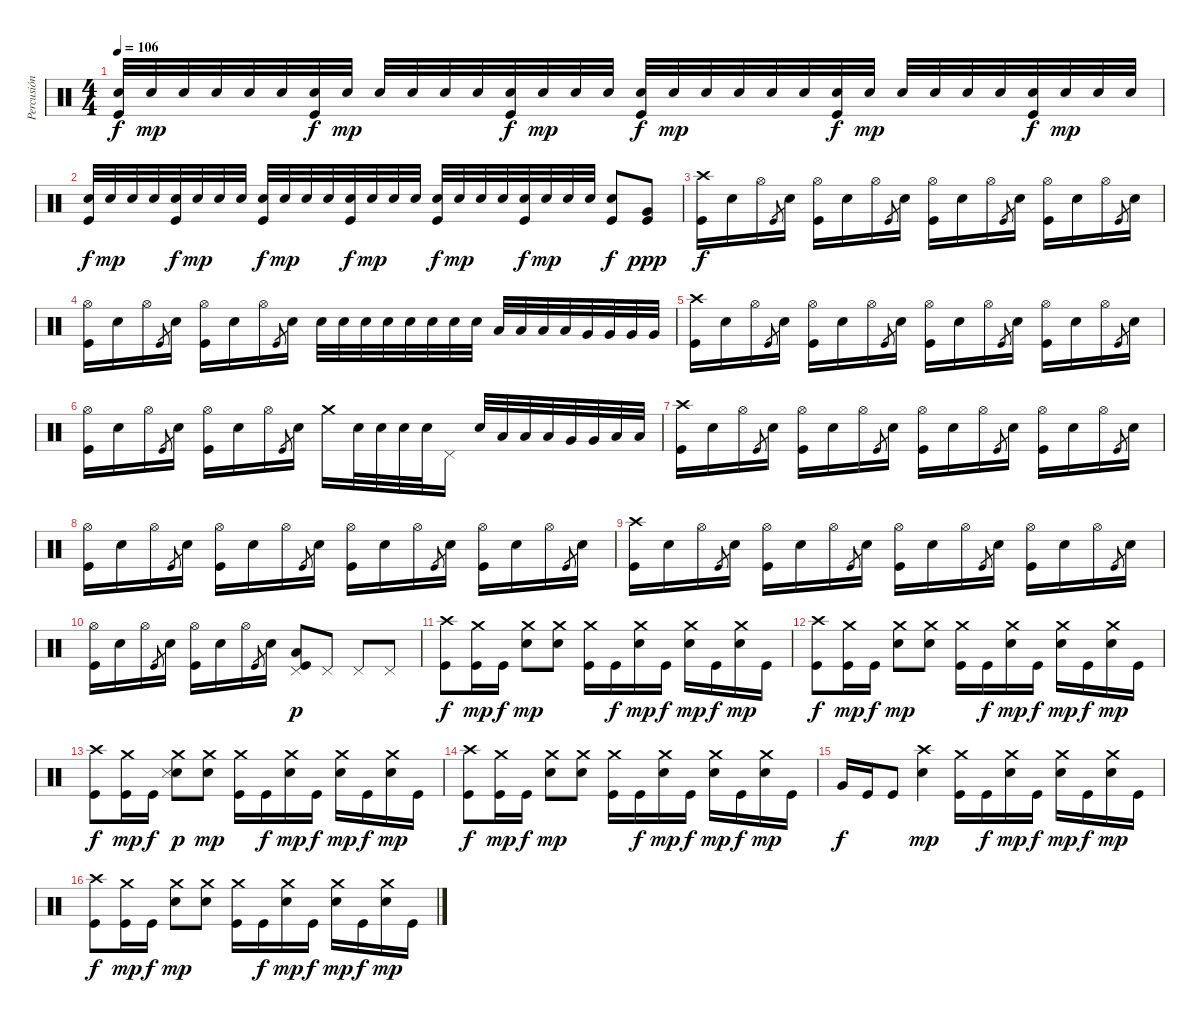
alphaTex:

\track ("Percusión" "Percusión") {instrument percussion}
\staff {score}
\articulation defaults
\ts (4 4)
\tempo 106
\clef neutral
\ks c
("Snare (hit) 2" "Kick (hit)").32{dy f} "Snare (hit) 2".32{dy mp} "Snare (hit) 2".32 "Snare (hit) 2".32 "Snare (hit) 2".32 "Snare (hit) 2".32 ("Snare (hit) 2" "Kick (hit)").32{dy f} "Snare (hit) 2".32{dy mp} "Snare (hit) 2".32 "Snare (hit) 2".32 "Snare (hit) 2".32 "Snare (hit) 2".32 ("Snare (hit) 2" "Kick (hit)").32{dy f} "Snare (hit) 2".32{dy mp} "Snare (hit) 2".32 "Snare (hit) 2".32 ("Snare (hit) 2" "Kick (hit)").32{dy f} "Snare (hit) 2".32{dy mp} "Snare (hit) 2".32 "Snare (hit) 2".32 "Snare (hit) 2".32 "Snare (hit) 2".32 ("Snare (hit) 2" "Kick (hit)").32{dy f} "Snare (hit) 2".32{dy mp} "Snare (hit) 2".32 "Snare (hit) 2".32 "Snare (hit) 2".32 "Snare (hit) 2".32 ("Snare (hit) 2" "Kick (hit)").32{dy f} "Snare (hit) 2".32{dy mp} "Snare (hit) 2".32 "Snare (hit) 2".32 |
("Snare (hit) 2" "Kick (hit)").32{dy f} "Snare (hit) 2".32{dy mp} "Snare (hit) 2".32 "Snare (hit) 2".32 ("Snare (hit) 2" "Kick (hit)").32{dy f} "Snare (hit) 2".32{dy mp} "Snare (hit) 2".32 "Snare (hit) 2".32 ("Snare (hit) 2" "Kick (hit)").32{dy f} "Snare (hit) 2".32{dy mp} "Snare (hit) 2".32 "Snare (hit) 2".32 ("Snare (hit) 2" "Kick (hit)").32{dy f} "Snare (hit) 2".32{dy mp} "Snare (hit) 2".32 "Snare (hit) 2".32 ("Snare (hit) 2" "Kick (hit)").32{dy f} "Snare (hit) 2".32{dy mp} "Snare (hit) 2".32 "Snare (hit) 2".32 ("Snare (hit) 2" "Kick (hit)").32{dy f} "Snare (hit) 2".32{dy mp} "Snare (hit) 2".32 "Snare (hit) 2".32 ("Snare (hit) 2" "Kick (hit)").8{dy f} ("Very Low Tom (hit)" "Kick (hit)").8{dy ppp} |
("Kick (hit)" "Crash high (hit)").16{dy f} "Snare (hit) 2".16 "Hi-Hat (open)".16 "Kick (hit)".8{gr} "Snare (hit) 2".16 ("Kick (hit)" "Hi-Hat (open)").16 "Snare (hit) 2".16 "Hi-Hat (open)".16 "Kick (hit)".8{gr} "Snare (hit) 2".16 ("Kick (hit)" "Hi-Hat (open)").16 "Snare (hit) 2".16 "Hi-Hat (open)".16 "Kick (hit)".8{gr} "Snare (hit) 2".16 ("Kick (hit)" "Hi-Hat (open)").16 "Snare (hit) 2".16 "Hi-Hat (open)".16 "Kick (hit)".8{gr} "Snare (hit) 2".16 |
("Kick (hit)" "Hi-Hat (open)").16 "Snare (hit) 2".16 "Hi-Hat (open)".16 "Kick (hit)".8{gr} "Snare (hit) 2".16 ("Kick (hit)" "Hi-Hat (open)").16 "Snare (hit) 2".16 "Hi-Hat (open)".16 "Kick (hit)".8{gr} "Snare (hit) 2".16 "Snare (hit) 2".32 "Snare (hit) 2".32 "Snare (hit) 2".32 "Snare (hit) 2".32 "Snare (hit) 2".32 "Snare (hit) 2".32 "Snare (hit) 2".32 "Snare (hit) 2".32 "Low Tom (hit)".32 "Low Tom (hit)".32 "Low Tom (hit)".32 "Low Tom (hit)".32 "Very Low Tom (hit)".32 "Very Low Tom (hit)".32 "Very Low Tom (hit)".32 "Very Low Tom (hit)".32 |
("Kick (hit)" "Crash high (hit)").16 "Snare (hit) 2".16 "Hi-Hat (open)".16 "Kick (hit)".8{gr} "Snare (hit) 2".16 ("Kick (hit)" "Hi-Hat (open)").16 "Snare (hit) 2".16 "Hi-Hat (open)".16 "Kick (hit)".8{gr} "Snare (hit) 2".16 ("Kick (hit)" "Hi-Hat (open)").16 "Snare (hit) 2".16 "Hi-Hat (open)".16 "Kick (hit)".8{gr} "Snare (hit) 2".16 ("Kick (hit)" "Hi-Hat (open)").16 "Snare (hit) 2".16 "Hi-Hat (open)".16 "Kick (hit)".8{gr} "Snare (hit) 2".16 |
("Kick (hit)" "Hi-Hat (open)").16 "Snare (hit) 2".16 "Hi-Hat (open)".16 "Kick (hit)".8{gr} "Snare (hit) 2".16 ("Kick (hit)" "Hi-Hat (open)").16 "Snare (hit) 2".16 "Hi-Hat (open)".16 "Kick (hit)".8{gr} "Snare (hit) 2".16 "Crash medium (hit)".16 "Snare (hit) 2".32 "Snare (hit) 2".32 "Snare (hit) 2".32 "Snare (hit) 2".32 "Pedal Hi-Hat (hit)".16 "Snare (hit) 2".32 "Low Tom (hit)".32 "Low Tom (hit)".32 "Low Tom (hit)".32 "Very Low Tom (hit)".32 "Very Low Tom (hit)".32 "Low Floor Tom (hit)".32 "Low Floor Tom (hit)".32 |
("Kick (hit)" "Crash high (hit)").16 "Snare (hit) 2".16 "Hi-Hat (open)".16 "Kick (hit)".8{gr} "Snare (hit) 2".16 ("Kick (hit)" "Hi-Hat (open)").16 "Snare (hit) 2".16 "Hi-Hat (open)".16 "Kick (hit)".8{gr} "Snare (hit) 2".16 ("Kick (hit)" "Hi-Hat (open)").16 "Snare (hit) 2".16 "Hi-Hat (open)".16 "Kick (hit)".8{gr} "Snare (hit) 2".16 ("Kick (hit)" "Hi-Hat (open)").16 "Snare (hit) 2".16 "Hi-Hat (open)".16 "Kick (hit)".8{gr} "Snare (hit) 2".16 |
("Kick (hit)" "Hi-Hat (open)").16 "Snare (hit) 2".16 "Hi-Hat (open)".16 "Kick (hit)".8{gr} "Snare (hit) 2".16 ("Kick (hit)" "Hi-Hat (open)").16 "Snare (hit) 2".16 "Hi-Hat (open)".16 "Kick (hit)".8{gr} "Snare (hit) 2".16 ("Kick (hit)" "Hi-Hat (open)").16 "Snare (hit) 2".16 "Hi-Hat (open)".16 "Kick (hit)".8{gr} "Snare (hit) 2".16 ("Kick (hit)" "Hi-Hat (open)").16 "Snare (hit) 2".16 "Hi-Hat (open)".16 "Kick (hit)".8{gr} "Snare (hit) 2".16 |
("Kick (hit)" "Crash high (hit)").16 "Snare (hit) 2".16 "Hi-Hat (open)".16 "Kick (hit)".8{gr} "Snare (hit) 2".16 ("Kick (hit)" "Hi-Hat (open)").16 "Snare (hit) 2".16 "Hi-Hat (open)".16 "Kick (hit)".8{gr} "Snare (hit) 2".16 ("Kick (hit)" "Hi-Hat (open)").16 "Snare (hit) 2".16 "Hi-Hat (open)".16 "Kick (hit)".8{gr} "Snare (hit) 2".16 ("Kick (hit)" "Hi-Hat (open)").16 "Snare (hit) 2".16 "Hi-Hat (open)".16 "Kick (hit)".8{gr} "Snare (hit) 2".16 |
("Kick (hit)" "Hi-Hat (open)").16 "Snare (hit) 2".16 "Hi-Hat (open)".16 "Kick (hit)".8{gr} "Snare (hit) 2".16 ("Kick (hit)" "Hi-Hat (open)").16 "Snare (hit) 2".16 "Hi-Hat (open)".16 "Kick (hit)".8{gr} "Snare (hit) 2".16 ("Kick (hit)" "Low Tom (hit)" "Pedal Hi-Hat (hit)").8{dy p} "Pedal Hi-Hat (hit)".8 "Pedal Hi-Hat (hit)".8 "Pedal Hi-Hat (hit)".8 |
("Kick (hit)" "Crash high (hit)").8{dy f} ("Kick (hit)" "Crash medium (hit)").16{dy mp} "Kick (hit)".16{dy f} ("Snare (hit) 2" "Crash medium (hit)").8{dy mp} ("Snare (hit) 2" "Crash medium (hit)").8 ("Kick (hit)" "Crash medium (hit)").16 "Kick (hit)".16{dy f} ("Snare (hit) 2" "Crash medium (hit)").16{dy mp} "Kick (hit)".16{dy f} ("Snare (hit) 2" "Crash medium (hit)").16{dy mp} "Kick (hit)".16{dy f} ("Snare (hit) 2" "Crash medium (hit)").16{dy mp} "Kick (hit)".16 |
("Kick (hit)" "Crash high (hit)").8{dy f} ("Kick (hit)" "Crash medium (hit)").16{dy mp} "Kick (hit)".16{dy f} ("Snare (hit) 2" "Crash medium (hit)").8{dy mp} ("Snare (hit) 2" "Crash medium (hit)").8 ("Kick (hit)" "Crash medium (hit)").16 "Kick (hit)".16{dy f} ("Snare (hit) 2" "Crash medium (hit)").16{dy mp} "Kick (hit)".16{dy f} ("Snare (hit) 2" "Crash medium (hit)").16{dy mp} "Kick (hit)".16{dy f} ("Snare (hit) 2" "Crash medium (hit)").16{dy mp} "Kick (hit)".16 |
("Kick (hit)" "Crash high (hit)").8{dy f} ("Kick (hit)" "Crash medium (hit)").16{dy mp} "Kick (hit)".16{dy f} ("Snare (hit) 2" "Crash medium (hit)" "Snare (side stick) 3").8{dy p} ("Snare (hit) 2" "Crash medium (hit)").8{dy mp} ("Kick (hit)" "Crash medium (hit)").16 "Kick (hit)".16{dy f} ("Snare (hit) 2" "Crash medium (hit)").16{dy mp} "Kick (hit)".16{dy f} ("Snare (hit) 2" "Crash medium (hit)").16{dy mp} "Kick (hit)".16{dy f} ("Snare (hit) 2" "Crash medium (hit)").16{dy mp} "Kick (hit)".16 |
("Kick (hit)" "Crash high (hit)").8{dy f} ("Kick (hit)" "Crash medium (hit)").16{dy mp} "Kick (hit)".16{dy f} ("Snare (hit) 2" "Crash medium (hit)").8{dy mp} ("Snare (hit) 2" "Crash medium (hit)").8 ("Kick (hit)" "Crash medium (hit)").16 "Kick (hit)".16{dy f} ("Snare (hit) 2" "Crash medium (hit)").16{dy mp} "Kick (hit)".16{dy f} ("Snare (hit) 2" "Crash medium (hit)").16{dy mp} "Kick (hit)".16{dy f} ("Snare (hit) 2" "Crash medium (hit)").16{dy mp} "Kick (hit)".16 |
"Very Low Tom (hit)".16{dy f} "Kick (hit)".16 "Kick (hit)".8 ("Snare (hit) 2" "Crash high (hit)").4{dy mp} ("Kick (hit)" "Crash medium (hit)").16 "Kick (hit)".16{dy f} ("Snare (hit) 2" "Crash medium (hit)").16{dy mp} "Kick (hit)".16{dy f} ("Snare (hit) 2" "Crash medium (hit)").16{dy mp} "Kick (hit)".16{dy f} ("Snare (hit) 2" "Crash medium (hit)").16{dy mp} "Kick (hit)".16 |
("Kick (hit)" "Crash high (hit)").8{dy f} ("Kick (hit)" "Crash medium (hit)").16{dy mp} "Kick (hit)".16{dy f} ("Snare (hit) 2" "Crash medium (hit)").8{dy mp} ("Snare (hit) 2" "Crash medium (hit)").8 ("Kick (hit)" "Crash medium (hit)").16 "Kick (hit)".16{dy f} ("Snare (hit) 2" "Crash medium (hit)").16{dy mp} "Kick (hit)".16{dy f} ("Snare (hit) 2" "Crash medium (hit)").16{dy mp} "Kick (hit)".16{dy f} ("Snare (hit) 2" "Crash medium (hit)").16{dy mp} "Kick (hit)".16
